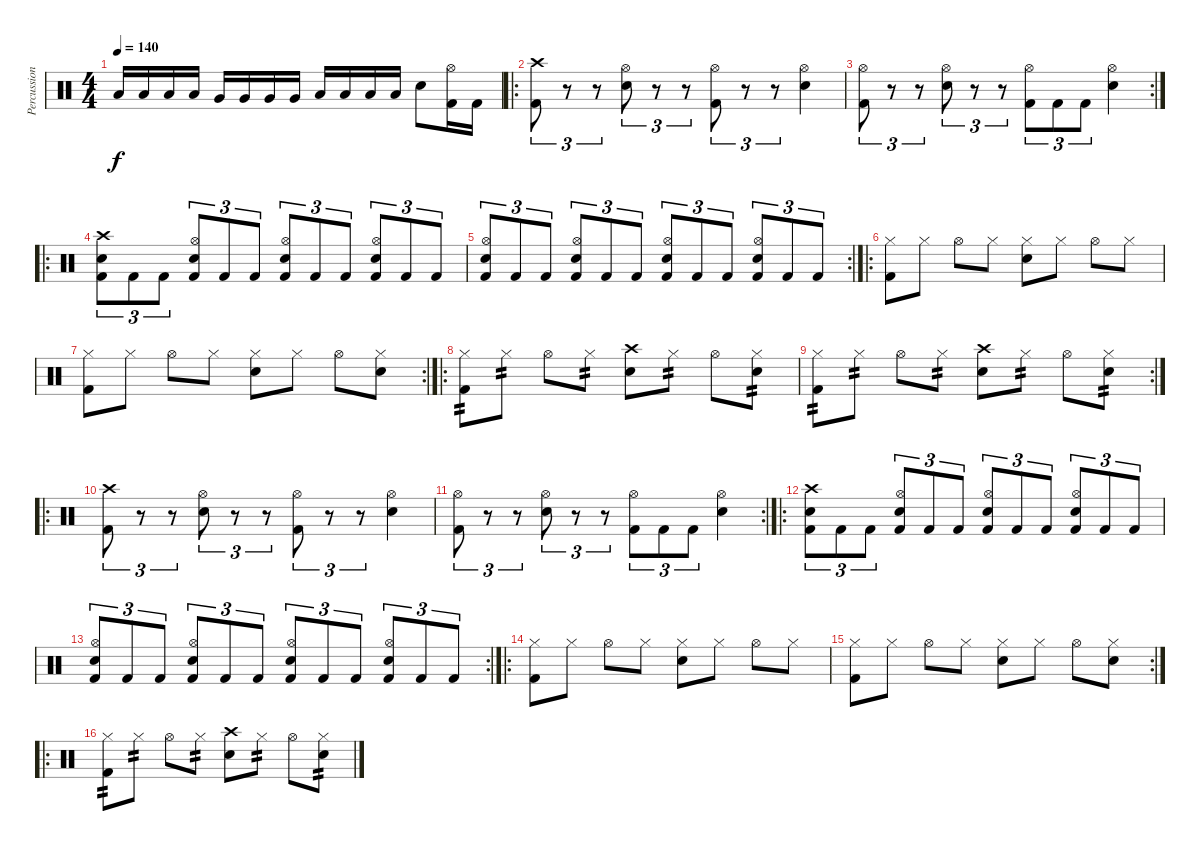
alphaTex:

\track ("Percussion" "Percussion") {instrument percussion}
\staff {score}
\articulation defaults
\ts (4 4)
\tempo 140
\clef neutral
\ks c "Low Tom (hit)".16{dy f} "Low Tom (hit)".16 "Low Tom (hit)".16 "Low Tom (hit)".16 "Very Low Tom (hit)".16 "Very Low Tom (hit)".16 "Very Low Tom (hit)".16 "Very Low Tom (hit)".16 "Low Floor Tom (hit)".16 "Low Floor Tom (hit)".16 "Low Floor Tom (hit)".16 "Low Floor Tom (hit)".16 "Snare (hit) 2".8
("Hi-Hat (open)" "Kick (hit) 2").16 "Kick (hit) 2".16 |
\ro
("Crash high (hit)" "Kick (hit) 2").8{tu (3 2)} r.8{tu (3 2)} r.8{tu (3 2)} ("Hi-Hat (open)" "Snare (hit) 2").8{tu (3 2)} r.8{tu (3 2)} r.8{tu (3 2)} ("Hi-Hat (open)" "Kick (hit) 2").8{tu (3 2)} r.8{tu (3 2)} r.8{tu (3 2)} ("Hi-Hat (open)" "Snare (hit) 2").4 |
\rc 2
("Hi-Hat (open)" "Kick (hit) 2").8{tu (3 2)} r.8{tu (3 2)} r.8{tu (3 2)} ("Hi-Hat (open)" "Snare (hit) 2").8{tu (3 2)} r.8{tu (3 2)} r.8{tu (3 2)} ("Hi-Hat (open)" "Kick (hit) 2").8{tu (3 2)} "Kick (hit) 2".8{tu (3 2)} "Kick (hit) 2".8{tu (3 2)} ("Hi-Hat (open)" "Snare (hit) 2").4 |
\ro
("Crash high (hit)" "Snare (hit) 2" "Kick (hit) 2").8{tu (3 2)} "Kick (hit) 2".8{tu (3 2)} "Kick (hit) 2".8{tu (3 2)} ("Hi-Hat (open)" "Snare (hit) 2" "Kick (hit) 2").8{tu (3 2)} "Kick (hit) 2".8{tu (3 2)} "Kick (hit) 2".8{tu (3 2)} ("Hi-Hat (open)" "Snare (hit) 2" "Kick (hit) 2").8{tu (3 2)} "Kick (hit) 2".8{tu (3 2)} "Kick (hit) 2".8{tu (3 2)} ("Hi-Hat (open)" "Snare (hit) 2" "Kick (hit) 2").8{tu (3 2)} "Kick (hit) 2".8{tu (3 2)} "Kick (hit) 2".8{tu (3 2)} |
\rc 2
("Hi-Hat (open)" "Snare (hit) 2" "Kick (hit) 2").8{tu (3 2)} "Kick (hit) 2".8{tu (3 2)} "Kick (hit) 2".8{tu (3 2)} ("Hi-Hat (open)" "Snare (hit) 2" "Kick (hit) 2").8{tu (3 2)} "Kick (hit) 2".8{tu (3 2)} "Kick (hit) 2".8{tu (3 2)} ("Hi-Hat (open)" "Snare (hit) 2" "Kick (hit) 2").8{tu (3 2)} "Kick (hit) 2".8{tu (3 2)} "Kick (hit) 2".8{tu (3 2)} ("Hi-Hat (open)" "Snare (hit) 2" "Kick (hit) 2").8{tu (3 2)} "Kick (hit) 2".8{tu (3 2)} "Kick (hit) 2".8{tu (3 2)} |
\ro
("Hi-Hat (closed)" "Kick (hit) 2").8 "Hi-Hat (closed)".8 "Hi-Hat (open)".8 "Hi-Hat (closed)".8 ("Hi-Hat (closed)" "Snare (hit) 2").8 "Hi-Hat (closed)".8 "Hi-Hat (open)".8 "Hi-Hat (closed)".8 |
\rc 2
("Hi-Hat (closed)" "Kick (hit) 2").8 "Hi-Hat (closed)".8 "Hi-Hat (open)".8 "Hi-Hat (closed)".8 ("Hi-Hat (closed)" "Snare (hit) 2").8 "Hi-Hat (closed)".8 "Hi-Hat (open)".8 ("Hi-Hat (closed)" "Snare (hit) 2").8 |
\ro
("Hi-Hat (closed)" "Kick (hit) 2").8{tp 2} "Hi-Hat (closed)".8{tp 2} "Hi-Hat (open)".8 "Hi-Hat (closed)".8{tp 2} ("Crash high (hit)" "Snare (hit) 2").8 "Hi-Hat (closed)".8{tp 2} "Hi-Hat (open)".8 ("Hi-Hat (closed)" "Snare (hit) 2").8{tp 2} |
\rc 2
("Hi-Hat (closed)" "Kick (hit) 2").8{tp 2} "Hi-Hat (closed)".8{tp 2} "Hi-Hat (open)".8 "Hi-Hat (closed)".8{tp 2} ("Crash high (hit)" "Snare (hit) 2").8 "Hi-Hat (closed)".8{tp 2} "Hi-Hat (open)".8 ("Hi-Hat (closed)" "Snare (hit) 2").8{tp 2} |
\ro
("Crash high (hit)" "Kick (hit) 2").8{tu (3 2)} r.8{tu (3 2)} r.8{tu (3 2)} ("Hi-Hat (open)" "Snare (hit) 2").8{tu (3 2)} r.8{tu (3 2)} r.8{tu (3 2)} ("Hi-Hat (open)" "Kick (hit) 2").8{tu (3 2)} r.8{tu (3 2)} r.8{tu (3 2)} ("Hi-Hat (open)" "Snare (hit) 2").4 |
\rc 2
("Hi-Hat (open)" "Kick (hit) 2").8{tu (3 2)} r.8{tu (3 2)} r.8{tu (3 2)} ("Hi-Hat (open)" "Snare (hit) 2").8{tu (3 2)} r.8{tu (3 2)} r.8{tu (3 2)} ("Hi-Hat (open)" "Kick (hit) 2").8{tu (3 2)} "Kick (hit) 2".8{tu (3 2)} "Kick (hit) 2".8{tu (3 2)} ("Hi-Hat (open)" "Snare (hit) 2").4 |
\ro
("Crash high (hit)" "Snare (hit) 2" "Kick (hit) 2").8{tu (3 2)} "Kick (hit) 2".8{tu (3 2)} "Kick (hit) 2".8{tu (3 2)} ("Hi-Hat (open)" "Snare (hit) 2" "Kick (hit) 2").8{tu (3 2)} "Kick (hit) 2".8{tu (3 2)} "Kick (hit) 2".8{tu (3 2)} ("Hi-Hat (open)" "Snare (hit) 2" "Kick (hit) 2").8{tu (3 2)} "Kick (hit) 2".8{tu (3 2)} "Kick (hit) 2".8{tu (3 2)} ("Hi-Hat (open)" "Snare (hit) 2" "Kick (hit) 2").8{tu (3 2)} "Kick (hit) 2".8{tu (3 2)} "Kick (hit) 2".8{tu (3 2)} |
\rc 2
("Hi-Hat (open)" "Snare (hit) 2" "Kick (hit) 2").8{tu (3 2)} "Kick (hit) 2".8{tu (3 2)} "Kick (hit) 2".8{tu (3 2)} ("Hi-Hat (open)" "Snare (hit) 2" "Kick (hit) 2").8{tu (3 2)} "Kick (hit) 2".8{tu (3 2)} "Kick (hit) 2".8{tu (3 2)} ("Hi-Hat (open)" "Snare (hit) 2" "Kick (hit) 2").8{tu (3 2)} "Kick (hit) 2".8{tu (3 2)} "Kick (hit) 2".8{tu (3 2)} ("Hi-Hat (open)" "Snare (hit) 2" "Kick (hit) 2").8{tu (3 2)} "Kick (hit) 2".8{tu (3 2)} "Kick (hit) 2".8{tu (3 2)} |
\ro
("Hi-Hat (closed)" "Kick (hit) 2").8 "Hi-Hat (closed)".8 "Hi-Hat (open)".8 "Hi-Hat (closed)".8 ("Hi-Hat (closed)" "Snare (hit) 2").8 "Hi-Hat (closed)".8 "Hi-Hat (open)".8 "Hi-Hat (closed)".8 |
\rc 2
("Hi-Hat (closed)" "Kick (hit) 2").8 "Hi-Hat (closed)".8 "Hi-Hat (open)".8 "Hi-Hat (closed)".8 ("Hi-Hat (closed)" "Snare (hit) 2").8 "Hi-Hat (closed)".8 "Hi-Hat (open)".8 ("Hi-Hat (closed)" "Snare (hit) 2").8 |
\ro
("Hi-Hat (closed)" "Kick (hit) 2").8{tp 2} "Hi-Hat (closed)".8{tp 2} "Hi-Hat (open)".8 "Hi-Hat (closed)".8{tp 2} ("Crash high (hit)" "Snare (hit) 2").8 "Hi-Hat (closed)".8{tp 2} "Hi-Hat (open)".8 ("Hi-Hat (closed)" "Snare (hit) 2").8{tp 2}
